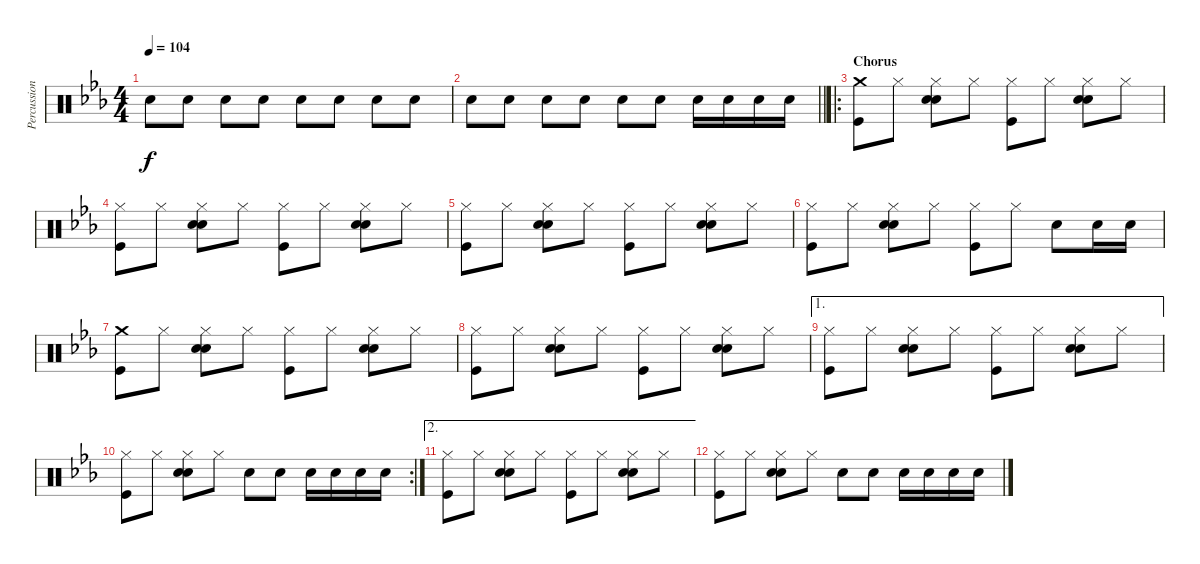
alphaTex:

\track ("Percussion" "Percussion") {instrument percussion}
\staff {score}
\articulation defaults
\ts (4 4)
\tempo 104
\clef neutral
\ks eb "Snare (hit) 2".8{dy f volume 13} "Snare (hit) 2".8 "Snare (hit) 2".8 "Snare (hit) 2".8 "Snare (hit) 2".8 "Snare (hit) 2".8 "Snare (hit) 2".8 "Snare (hit) 2".8
|
\barLineRight lightlight "Snare (hit) 2".8 "Snare (hit) 2".8 "Snare (hit) 2".8 "Snare (hit) 2".8 "Snare (hit) 2".8 "Snare (hit) 2".8 "Snare (hit) 2".16 "Snare (hit) 2".16 "Snare (hit) 2".16 "Snare (hit) 2".16
|
\ro
\section ("" "Chorus")
("Crash medium (hit)" "Kick (hit)").8 "Hi-Hat (closed)".8 ("Hi-Hat (closed)" "Hand Clap (hit)" "Snare (hit) 2").8 "Hi-Hat (closed)".8 ("Hi-Hat (closed)" "Kick (hit)").8 "Hi-Hat (closed)".8 ("Hi-Hat (closed)" "Hand Clap (hit)" "Snare (hit) 2").8 "Hi-Hat (closed)".8 |
("Hi-Hat (closed)" "Kick (hit)").8 "Hi-Hat (closed)".8 ("Hi-Hat (closed)" "Hand Clap (hit)" "Snare (hit) 2").8 "Hi-Hat (closed)".8 ("Hi-Hat (closed)" "Kick (hit)").8 "Hi-Hat (closed)".8 ("Hi-Hat (closed)" "Hand Clap (hit)" "Snare (hit) 2").8 "Hi-Hat (closed)".8 |
("Hi-Hat (closed)" "Kick (hit)").8 "Hi-Hat (closed)".8 ("Hi-Hat (closed)" "Hand Clap (hit)" "Snare (hit) 2").8 "Hi-Hat (closed)".8 ("Hi-Hat (closed)" "Kick (hit)").8 "Hi-Hat (closed)".8 ("Hi-Hat (closed)" "Hand Clap (hit)" "Snare (hit) 2").8 "Hi-Hat (closed)".8 |
("Hi-Hat (closed)" "Kick (hit)").8 "Hi-Hat (closed)".8 ("Hi-Hat (closed)" "Hand Clap (hit)" "Snare (hit) 2").8 "Hi-Hat (closed)".8 ("Hi-Hat (closed)" "Kick (hit)").8 "Hi-Hat (closed)".8 "Snare (hit) 2".8 "Snare (hit) 2".16 "Snare (hit) 2".16 |
("Crash medium (hit)" "Kick (hit)").8 "Hi-Hat (closed)".8 ("Hi-Hat (closed)" "Hand Clap (hit)" "Snare (hit) 2").8 "Hi-Hat (closed)".8 ("Hi-Hat (closed)" "Kick (hit)").8 "Hi-Hat (closed)".8 ("Hi-Hat (closed)" "Hand Clap (hit)" "Snare (hit) 2").8 "Hi-Hat (closed)".8 |
("Hi-Hat (closed)" "Kick (hit)").8 "Hi-Hat (closed)".8 ("Hi-Hat (closed)" "Hand Clap (hit)" "Snare (hit) 2").8 "Hi-Hat (closed)".8 ("Hi-Hat (closed)" "Kick (hit)").8 "Hi-Hat (closed)".8 ("Hi-Hat (closed)" "Hand Clap (hit)" "Snare (hit) 2").8 "Hi-Hat (closed)".8 |
\ae 1
("Hi-Hat (closed)" "Kick (hit)").8 "Hi-Hat (closed)".8 ("Hi-Hat (closed)" "Hand Clap (hit)" "Snare (hit) 2").8 "Hi-Hat (closed)".8 ("Hi-Hat (closed)" "Kick (hit)").8 "Hi-Hat (closed)".8 ("Hi-Hat (closed)" "Hand Clap (hit)" "Snare (hit) 2").8 "Hi-Hat (closed)".8 |
\rc 2
("Hi-Hat (closed)" "Kick (hit)").8 "Hi-Hat (closed)".8 ("Hi-Hat (closed)" "Hand Clap (hit)" "Snare (hit) 2").8 "Hi-Hat (closed)".8 "Snare (hit) 2".8 "Snare (hit) 2".8 "Snare (hit) 2".16 "Snare (hit) 2".16 "Snare (hit) 2".16 "Snare (hit) 2".16 |
\ae 2
("Hi-Hat (closed)" "Kick (hit)").8 "Hi-Hat (closed)".8 ("Hi-Hat (closed)" "Hand Clap (hit)" "Snare (hit) 2").8 "Hi-Hat (closed)".8 ("Hi-Hat (closed)" "Kick (hit)").8 "Hi-Hat (closed)".8 ("Hi-Hat (closed)" "Hand Clap (hit)" "Snare (hit) 2").8 "Hi-Hat (closed)".8 |
("Hi-Hat (closed)" "Kick (hit)").8 "Hi-Hat (closed)".8 ("Hi-Hat (closed)" "Hand Clap (hit)" "Snare (hit) 2").8 "Hi-Hat (closed)".8 "Snare (hit) 2".8 "Snare (hit) 2".8 "Snare (hit) 2".16 "Snare (hit) 2".16 "Snare (hit) 2".16 "Snare (hit) 2".16
